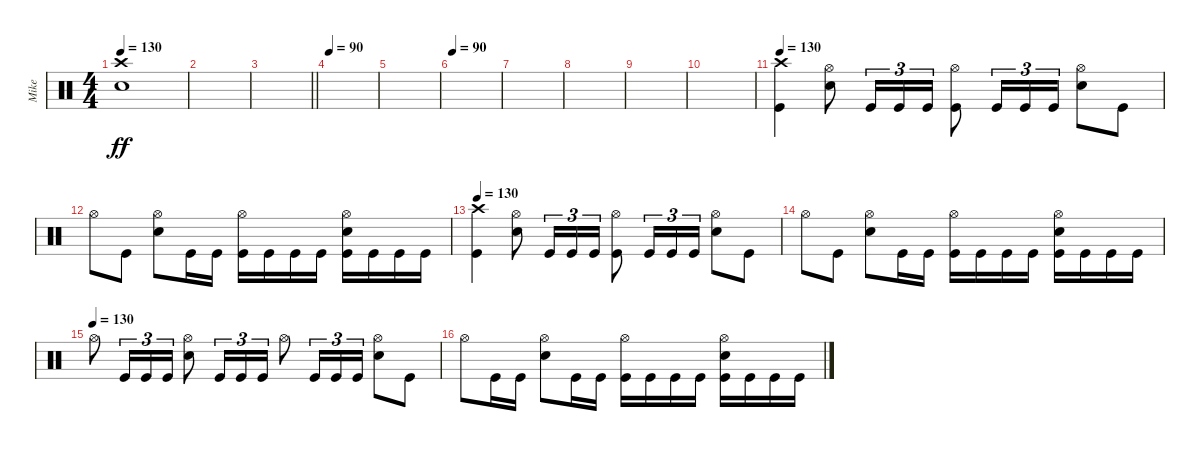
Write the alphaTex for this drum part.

\track ("Mike" "Mike") {instrument percussion}
\staff {score}
\articulation defaults
\ts (4 4)
\tempo 130
\clef neutral
\ks c
("Snare (hit) 2" "Crash high (hit)").1{dy ff} |
|
\barLineRight lightlight
|
\tempo 90
|
|
\tempo 90
|
|
|
|
|
\tempo 130
("Crash high (hit)" "Kick (hit)").4 ("Snare (hit) 2" "Hi-Hat (open)").8 "Kick (hit)".16{tu (3 2)} "Kick (hit)".16{tu (3 2)} "Kick (hit)".16{tu (3 2)} ("Hi-Hat (open)" "Kick (hit)").8 "Kick (hit)".16{tu (3 2)} "Kick (hit)".16{tu (3 2)} "Kick (hit)".16{tu (3 2)} ("Snare (hit) 2" "Hi-Hat (open)").8 "Kick (hit)".8 |
"Hi-Hat (open)".8 "Kick (hit)".8 ("Hi-Hat (open)" "Snare (hit) 2").8 "Kick (hit)".16 "Kick (hit)".16 ("Hi-Hat (open)" "Kick (hit)").16 "Kick (hit)".16 "Kick (hit)".16 "Kick (hit)".16 ("Snare (hit) 2" "Hi-Hat (open)" "Kick (hit)").16 "Kick (hit)".16 "Kick (hit)".16 "Kick (hit)".16 |
\tempo 130
("Crash high (hit)" "Kick (hit)").4 ("Snare (hit) 2" "Hi-Hat (open)").8 "Kick (hit)".16{tu (3 2)} "Kick (hit)".16{tu (3 2)} "Kick (hit)".16{tu (3 2)} ("Hi-Hat (open)" "Kick (hit)").8 "Kick (hit)".16{tu (3 2)} "Kick (hit)".16{tu (3 2)} "Kick (hit)".16{tu (3 2)} ("Snare (hit) 2" "Hi-Hat (open)").8 "Kick (hit)".8 |
"Hi-Hat (open)".8 "Kick (hit)".8 ("Hi-Hat (open)" "Snare (hit) 2").8 "Kick (hit)".16 "Kick (hit)".16 ("Hi-Hat (open)" "Kick (hit)").16 "Kick (hit)".16 "Kick (hit)".16 "Kick (hit)".16 ("Snare (hit) 2" "Hi-Hat (open)" "Kick (hit)").16 "Kick (hit)".16 "Kick (hit)".16 "Kick (hit)".16 |
\tempo (130)
"Hi-Hat (open)".8 "Kick (hit)".16{tu (3 2)} "Kick (hit)".16{tu (3 2)} "Kick (hit)".16{tu (3 2)} ("Snare (hit) 2" "Hi-Hat (open)").8 "Kick (hit)".16{tu (3 2)} "Kick (hit)".16{tu (3 2)} "Kick (hit)".16{tu (3 2)} "Hi-Hat (open)".8 "Kick (hit)".16{tu (3 2)} "Kick (hit)".16{tu (3 2)} "Kick (hit)".16{tu (3 2)} ("Hi-Hat (open)" "Snare (hit) 2").8 "Kick (hit)".8 |
"Hi-Hat (open)".8 "Kick (hit)".16 "Kick (hit)".16 ("Snare (hit) 2" "Hi-Hat (open)").8 "Kick (hit)".16 "Kick (hit)".16 ("Hi-Hat (open)" "Kick (hit)").16 "Kick (hit)".16 "Kick (hit)".16 "Kick (hit)".16 ("Hi-Hat (open)" "Snare (hit) 2" "Kick (hit)").16 "Kick (hit)".16 "Kick (hit)".16 "Kick (hit)".16
